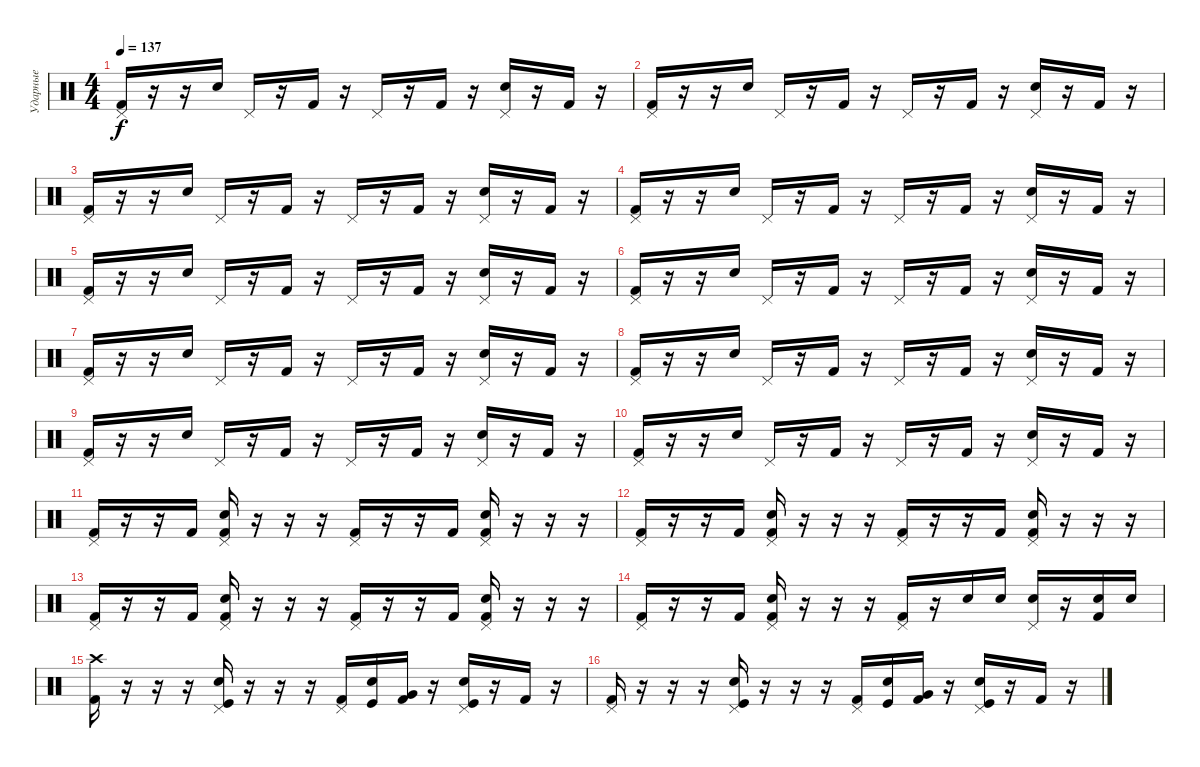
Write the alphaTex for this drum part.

\track ("Ударные" "Ударные") {instrument percussion}
\staff {score}
\articulation defaults
\ts (4 4)
\tempo 137
\clef neutral
\ks c
("Pedal Hi-Hat (hit)" "Kick (hit) 2").16{dy f} r.16 r.16 "Electric Snare (hit)".16 "Pedal Hi-Hat (hit)".16 r.16 "Kick (hit) 2".16 r.16 "Pedal Hi-Hat (hit)".16 r.16 "Kick (hit) 2".16 r.16 ("Pedal Hi-Hat (hit)" "Electric Snare (hit)").16 r.16 "Kick (hit) 2".16 r.16 |
("Pedal Hi-Hat (hit)" "Kick (hit) 2").16 r.16 r.16 "Electric Snare (hit)".16 "Pedal Hi-Hat (hit)".16 r.16 "Kick (hit) 2".16 r.16 "Pedal Hi-Hat (hit)".16 r.16 "Kick (hit) 2".16 r.16 ("Pedal Hi-Hat (hit)" "Electric Snare (hit)").16 r.16 "Kick (hit) 2".16 r.16 |
("Pedal Hi-Hat (hit)" "Kick (hit) 2").16 r.16 r.16 "Electric Snare (hit)".16 "Pedal Hi-Hat (hit)".16 r.16 "Kick (hit) 2".16 r.16 "Pedal Hi-Hat (hit)".16 r.16 "Kick (hit) 2".16 r.16 ("Pedal Hi-Hat (hit)" "Electric Snare (hit)").16 r.16 "Kick (hit) 2".16 r.16 |
("Pedal Hi-Hat (hit)" "Kick (hit) 2").16 r.16 r.16 "Electric Snare (hit)".16 "Pedal Hi-Hat (hit)".16 r.16 "Kick (hit) 2".16 r.16 "Pedal Hi-Hat (hit)".16 r.16 "Kick (hit) 2".16 r.16 ("Pedal Hi-Hat (hit)" "Electric Snare (hit)").16 r.16 "Kick (hit) 2".16 r.16 |
("Pedal Hi-Hat (hit)" "Kick (hit) 2").16 r.16 r.16 "Electric Snare (hit)".16 "Pedal Hi-Hat (hit)".16 r.16 "Kick (hit) 2".16 r.16 "Pedal Hi-Hat (hit)".16 r.16 "Kick (hit) 2".16 r.16 ("Pedal Hi-Hat (hit)" "Electric Snare (hit)").16 r.16 "Kick (hit) 2".16 r.16 |
("Pedal Hi-Hat (hit)" "Kick (hit) 2").16 r.16 r.16 "Electric Snare (hit)".16 "Pedal Hi-Hat (hit)".16 r.16 "Kick (hit) 2".16 r.16 "Pedal Hi-Hat (hit)".16 r.16 "Kick (hit) 2".16 r.16 ("Pedal Hi-Hat (hit)" "Electric Snare (hit)").16 r.16 "Kick (hit) 2".16 r.16 |
("Pedal Hi-Hat (hit)" "Kick (hit) 2").16 r.16 r.16 "Electric Snare (hit)".16 "Pedal Hi-Hat (hit)".16 r.16 "Kick (hit) 2".16 r.16 "Pedal Hi-Hat (hit)".16 r.16 "Kick (hit) 2".16 r.16 ("Pedal Hi-Hat (hit)" "Electric Snare (hit)").16 r.16 "Kick (hit) 2".16 r.16 |
("Pedal Hi-Hat (hit)" "Kick (hit) 2").16 r.16 r.16 "Electric Snare (hit)".16 "Pedal Hi-Hat (hit)".16 r.16 "Kick (hit) 2".16 r.16 "Pedal Hi-Hat (hit)".16 r.16 "Kick (hit) 2".16 r.16 ("Pedal Hi-Hat (hit)" "Electric Snare (hit)").16 r.16 "Kick (hit) 2".16 r.16 |
("Pedal Hi-Hat (hit)" "Kick (hit) 2").16 r.16 r.16 "Electric Snare (hit)".16 "Pedal Hi-Hat (hit)".16 r.16 "Kick (hit) 2".16 r.16 "Pedal Hi-Hat (hit)".16 r.16 "Kick (hit) 2".16 r.16 ("Pedal Hi-Hat (hit)" "Electric Snare (hit)").16 r.16 "Kick (hit) 2".16 r.16 |
("Pedal Hi-Hat (hit)" "Kick (hit) 2").16 r.16 r.16 "Electric Snare (hit)".16 "Pedal Hi-Hat (hit)".16 r.16 "Kick (hit) 2".16 r.16 "Pedal Hi-Hat (hit)".16 r.16 "Kick (hit) 2".16 r.16 ("Pedal Hi-Hat (hit)" "Electric Snare (hit)").16 r.16 "Kick (hit) 2".16 r.16 |
("Pedal Hi-Hat (hit)" "Kick (hit) 2").16 r.16 r.16 "Kick (hit) 2".16 ("Pedal Hi-Hat (hit)" "Electric Snare (hit)" "Kick (hit) 2").16 r.16 r.16 r.16 ("Pedal Hi-Hat (hit)" "Kick (hit) 2").16 r.16 r.16 "Kick (hit) 2".16 ("Pedal Hi-Hat (hit)" "Electric Snare (hit)" "Kick (hit) 2").16 r.16 r.16 r.16 |
("Pedal Hi-Hat (hit)" "Kick (hit) 2").16 r.16 r.16 "Kick (hit) 2".16 ("Pedal Hi-Hat (hit)" "Electric Snare (hit)" "Kick (hit) 2").16 r.16 r.16 r.16 ("Pedal Hi-Hat (hit)" "Kick (hit) 2").16 r.16 r.16 "Kick (hit) 2".16 ("Pedal Hi-Hat (hit)" "Electric Snare (hit)" "Kick (hit) 2").16 r.16 r.16 r.16 |
("Pedal Hi-Hat (hit)" "Kick (hit) 2").16 r.16 r.16 "Kick (hit) 2".16 ("Pedal Hi-Hat (hit)" "Electric Snare (hit)" "Kick (hit) 2").16 r.16 r.16 r.16 ("Pedal Hi-Hat (hit)" "Kick (hit) 2").16 r.16 r.16 "Kick (hit) 2".16 ("Pedal Hi-Hat (hit)" "Electric Snare (hit)" "Kick (hit) 2").16 r.16 r.16 r.16 |
("Pedal Hi-Hat (hit)" "Kick (hit) 2").16 r.16 r.16 "Kick (hit) 2".16 ("Pedal Hi-Hat (hit)" "Electric Snare (hit)" "Kick (hit) 2").16 r.16 r.16 r.16 ("Pedal Hi-Hat (hit)" "Kick (hit) 2").16 r.16 "Electric Snare (hit)".16 "Electric Snare (hit)".16 ("Pedal Hi-Hat (hit)" "Electric Snare (hit)").16 r.16 ("Electric Snare (hit)" "Kick (hit) 2").16 "Electric Snare (hit)".16 |
("Crash high (hit)" "Kick (hit) 2").16 r.16 r.16 r.16 ("Pedal Hi-Hat (hit)" "Electric Snare (hit)" "Kick (hit)").16 r.16 r.16 r.16 ("Pedal Hi-Hat (hit)" "Kick (hit) 2").16 ("Electric Snare (hit)" "Kick (hit)").16 ("Very Low Tom (hit)" "Kick (hit) 2").16 r.16 ("Pedal Hi-Hat (hit)" "Electric Snare (hit)" "Kick (hit)").16 r.16 "Kick (hit) 2".16 r.16 |
("Pedal Hi-Hat (hit)" "Kick (hit) 2").16 r.16 r.16 r.16 ("Pedal Hi-Hat (hit)" "Electric Snare (hit)" "Kick (hit)").16 r.16 r.16 r.16 ("Pedal Hi-Hat (hit)" "Kick (hit) 2").16 ("Electric Snare (hit)" "Kick (hit)").16 ("Very Low Tom (hit)" "Kick (hit) 2").16 r.16 ("Pedal Hi-Hat (hit)" "Electric Snare (hit)" "Kick (hit)").16 r.16 "Kick (hit) 2".16 r.16
